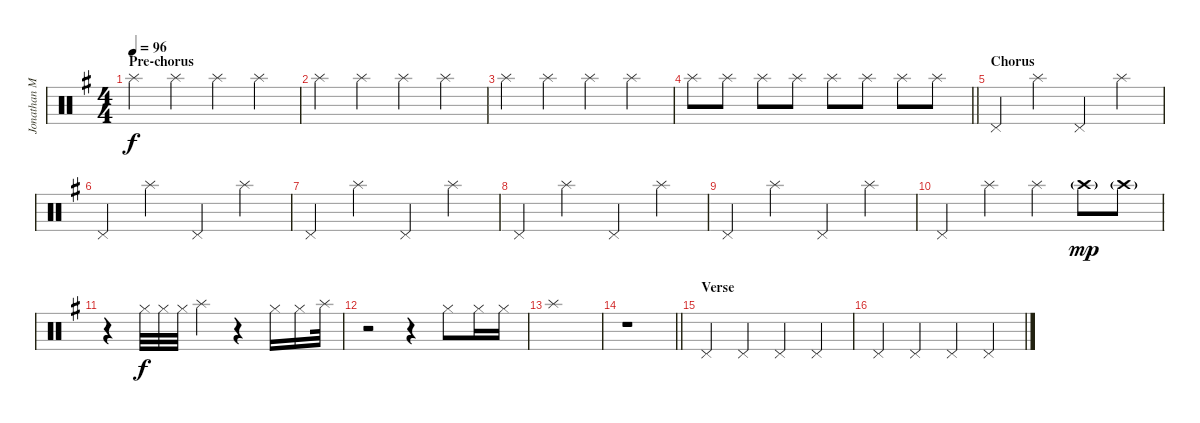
\track ("Jonathan Mover (Drums)" "Jonathan M") {instrument percussion}
\staff {score}
\articulation defaults
\ts (4 4)
\section ("" "Pre-chorus")
\tempo 96
\clef neutral
\ks g "Splash (hit)".4{dy f} "Splash (hit)".4 "Splash (hit)".4 "Splash (hit)".4
|
"Splash (hit)".4 "Splash (hit)".4 "Splash (hit)".4 "Splash (hit)".4 |
"Splash (hit)".4 "Splash (hit)".4 "Splash (hit)".4 "Splash (hit)".4 |
\barLineRight lightlight "Splash (hit)".8 "Splash (hit)".8 "Splash (hit)".8 "Splash (hit)".8 "Splash (hit)".8 "Splash (hit)".8 "Splash (hit)".8 "Splash (hit)".8
|
\section ("" "Chorus")
"Pedal Hi-Hat (hit)".4 "Splash (hit)".4 "Pedal Hi-Hat (hit)".4 "Splash (hit)".4 |
"Pedal Hi-Hat (hit)".4 "Splash (hit)".4 "Pedal Hi-Hat (hit)".4 "Splash (hit)".4 |
"Pedal Hi-Hat (hit)".4 "Splash (hit)".4 "Pedal Hi-Hat (hit)".4 "Splash (hit)".4 |
"Pedal Hi-Hat (hit)".4 "Splash (hit)".4 "Pedal Hi-Hat (hit)".4 "Splash (hit)".4 |
"Pedal Hi-Hat (hit)".4 "Splash (hit)".4 "Pedal Hi-Hat (hit)".4 "Splash (hit)".4 |
"Pedal Hi-Hat (hit)".4 "Splash (hit)".4 "Splash (hit)".4 "Crash high (hit)"{g}.8{dy mp} "Crash high (hit)"{g}.8 |
r.4 "Hi-Hat (closed)".32{dy f} "Hi-Hat (closed)".32 "Hi-Hat (closed)".32 "Splash (hit)".4 r.4 "Hi-Hat (closed)".16 "Hi-Hat (closed)".16 "Splash (hit)".32 |
r.2 r.4 "Hi-Hat (closed)".8 "Hi-Hat (closed)".16 "Hi-Hat (closed)".16 |
"Splash (hit)".1 |
\barLineRight lightlight
r.1 |
\section ("" "Verse")
"Pedal Hi-Hat (hit)".4 "Pedal Hi-Hat (hit)".4 "Pedal Hi-Hat (hit)".4 "Pedal Hi-Hat (hit)".4 |
"Pedal Hi-Hat (hit)".4 "Pedal Hi-Hat (hit)".4 "Pedal Hi-Hat (hit)".4 "Pedal Hi-Hat (hit)".4
